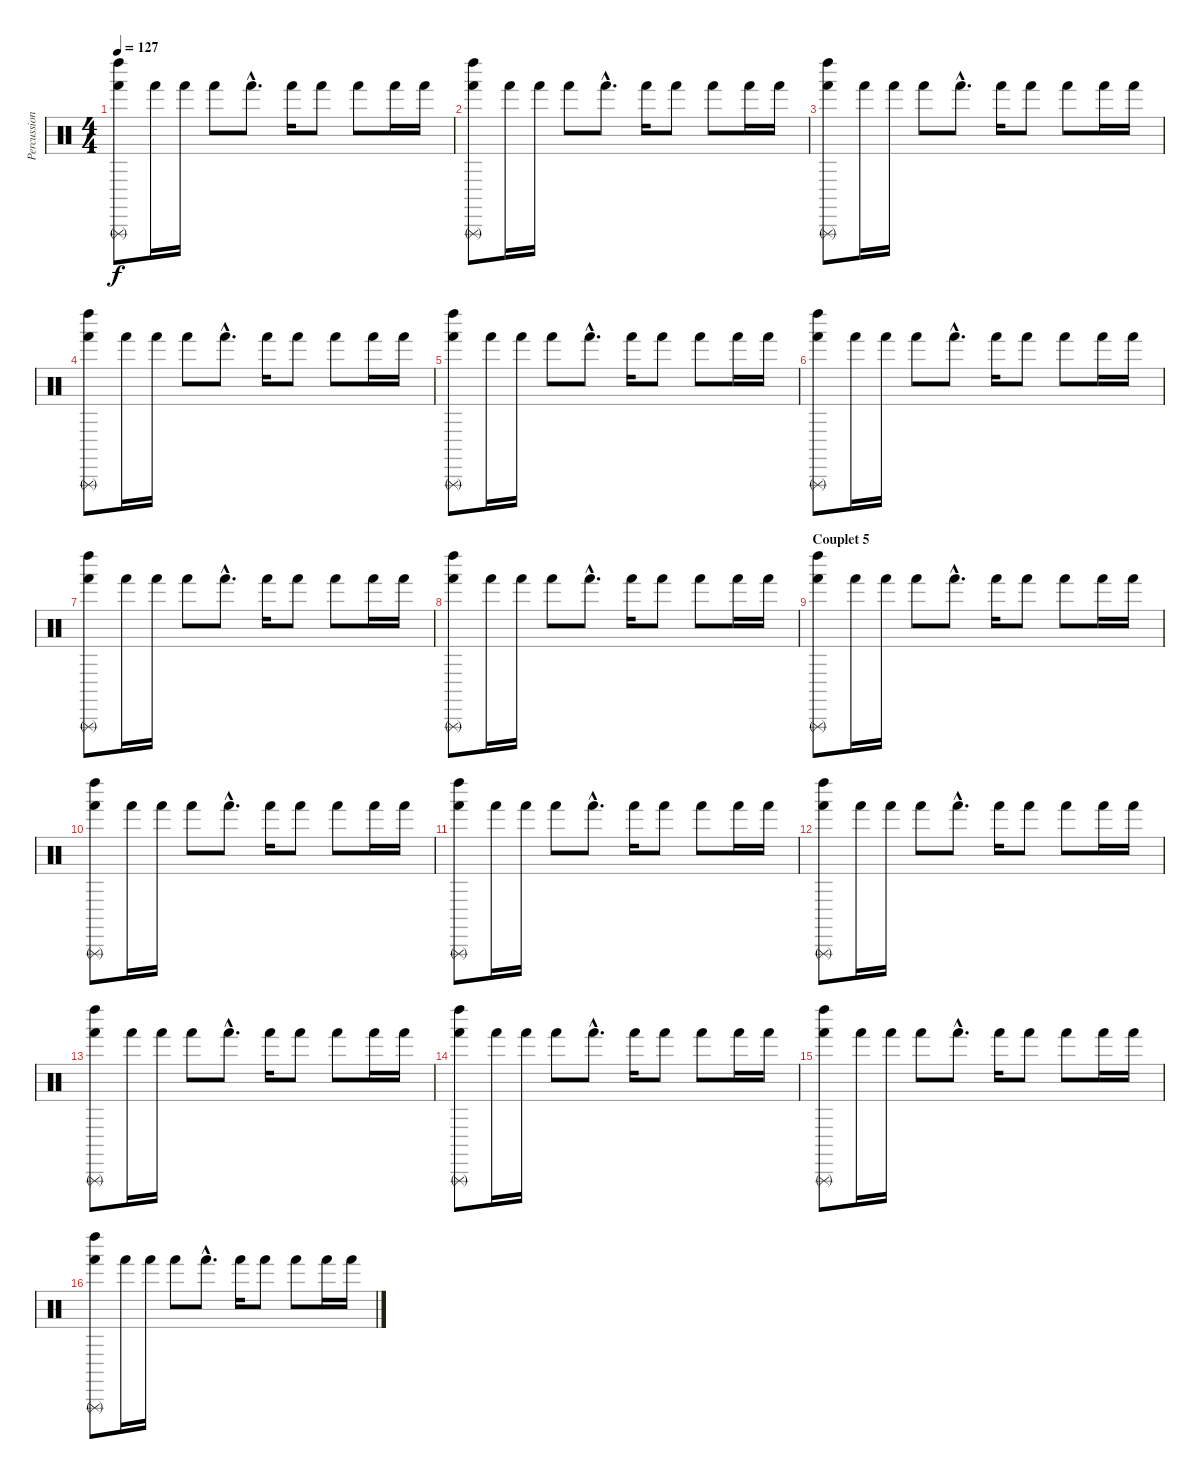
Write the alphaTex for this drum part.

\track ("Percussions" "Percussion") {instrument percussion}
\staff {score}
\articulation defaults
\ts (4 4)
\tempo 127
\clef neutral
\ks c
("Hand (hit)" "Triangle (rnute)" "Left Maraca (hit)").8{dy f} "Hand (hit)".16 "Hand (hit)".16 "Hand (hit)".8 "Hand (hit)"{hac}.8{d} "Hand (hit)".16 "Hand (hit)".8 "Hand (hit)".8 "Hand (hit)".16 "Hand (hit)".16 |
("Hand (hit)" "Triangle (rnute)" "Left Maraca (hit)").8 "Hand (hit)".16 "Hand (hit)".16 "Hand (hit)".8 "Hand (hit)"{hac}.8{d} "Hand (hit)".16 "Hand (hit)".8 "Hand (hit)".8 "Hand (hit)".16 "Hand (hit)".16 |
("Hand (hit)" "Triangle (rnute)" "Left Maraca (hit)").8 "Hand (hit)".16 "Hand (hit)".16 "Hand (hit)".8 "Hand (hit)"{hac}.8{d} "Hand (hit)".16 "Hand (hit)".8 "Hand (hit)".8 "Hand (hit)".16 "Hand (hit)".16 |
("Hand (hit)" "Triangle (rnute)" "Left Maraca (hit)").8 "Hand (hit)".16 "Hand (hit)".16 "Hand (hit)".8 "Hand (hit)"{hac}.8{d} "Hand (hit)".16 "Hand (hit)".8 "Hand (hit)".8 "Hand (hit)".16 "Hand (hit)".16 |
("Hand (hit)" "Triangle (rnute)" "Left Maraca (hit)").8 "Hand (hit)".16 "Hand (hit)".16 "Hand (hit)".8 "Hand (hit)"{hac}.8{d} "Hand (hit)".16 "Hand (hit)".8 "Hand (hit)".8 "Hand (hit)".16 "Hand (hit)".16 |
("Hand (hit)" "Triangle (rnute)" "Left Maraca (hit)").8 "Hand (hit)".16 "Hand (hit)".16 "Hand (hit)".8 "Hand (hit)"{hac}.8{d} "Hand (hit)".16 "Hand (hit)".8 "Hand (hit)".8 "Hand (hit)".16 "Hand (hit)".16 |
("Hand (hit)" "Triangle (rnute)" "Left Maraca (hit)").8 "Hand (hit)".16 "Hand (hit)".16 "Hand (hit)".8 "Hand (hit)"{hac}.8{d} "Hand (hit)".16 "Hand (hit)".8 "Hand (hit)".8 "Hand (hit)".16 "Hand (hit)".16 |
("Hand (hit)" "Triangle (rnute)" "Left Maraca (hit)").8 "Hand (hit)".16 "Hand (hit)".16 "Hand (hit)".8 "Hand (hit)"{hac}.8{d} "Hand (hit)".16 "Hand (hit)".8 "Hand (hit)".8 "Hand (hit)".16 "Hand (hit)".16 |
\section ("" "Couplet 5")
("Hand (hit)" "Triangle (rnute)" "Left Maraca (hit)").8 "Hand (hit)".16 "Hand (hit)".16 "Hand (hit)".8 "Hand (hit)"{hac}.8{d} "Hand (hit)".16 "Hand (hit)".8 "Hand (hit)".8 "Hand (hit)".16 "Hand (hit)".16 |
("Hand (hit)" "Triangle (rnute)" "Left Maraca (hit)").8 "Hand (hit)".16 "Hand (hit)".16 "Hand (hit)".8 "Hand (hit)"{hac}.8{d} "Hand (hit)".16 "Hand (hit)".8 "Hand (hit)".8 "Hand (hit)".16 "Hand (hit)".16 |
("Hand (hit)" "Triangle (rnute)" "Left Maraca (hit)").8 "Hand (hit)".16 "Hand (hit)".16 "Hand (hit)".8 "Hand (hit)"{hac}.8{d} "Hand (hit)".16 "Hand (hit)".8 "Hand (hit)".8 "Hand (hit)".16 "Hand (hit)".16 |
("Hand (hit)" "Triangle (rnute)" "Left Maraca (hit)").8 "Hand (hit)".16 "Hand (hit)".16 "Hand (hit)".8 "Hand (hit)"{hac}.8{d} "Hand (hit)".16 "Hand (hit)".8 "Hand (hit)".8 "Hand (hit)".16 "Hand (hit)".16 |
("Hand (hit)" "Triangle (rnute)" "Left Maraca (hit)").8 "Hand (hit)".16 "Hand (hit)".16 "Hand (hit)".8 "Hand (hit)"{hac}.8{d} "Hand (hit)".16 "Hand (hit)".8 "Hand (hit)".8 "Hand (hit)".16 "Hand (hit)".16 |
("Hand (hit)" "Triangle (rnute)" "Left Maraca (hit)").8 "Hand (hit)".16 "Hand (hit)".16 "Hand (hit)".8 "Hand (hit)"{hac}.8{d} "Hand (hit)".16 "Hand (hit)".8 "Hand (hit)".8 "Hand (hit)".16 "Hand (hit)".16 |
("Hand (hit)" "Triangle (rnute)" "Left Maraca (hit)").8 "Hand (hit)".16 "Hand (hit)".16 "Hand (hit)".8 "Hand (hit)"{hac}.8{d} "Hand (hit)".16 "Hand (hit)".8 "Hand (hit)".8 "Hand (hit)".16 "Hand (hit)".16 |
("Hand (hit)" "Triangle (rnute)" "Left Maraca (hit)").8 "Hand (hit)".16 "Hand (hit)".16 "Hand (hit)".8 "Hand (hit)"{hac}.8{d} "Hand (hit)".16 "Hand (hit)".8 "Hand (hit)".8 "Hand (hit)".16 "Hand (hit)".16
